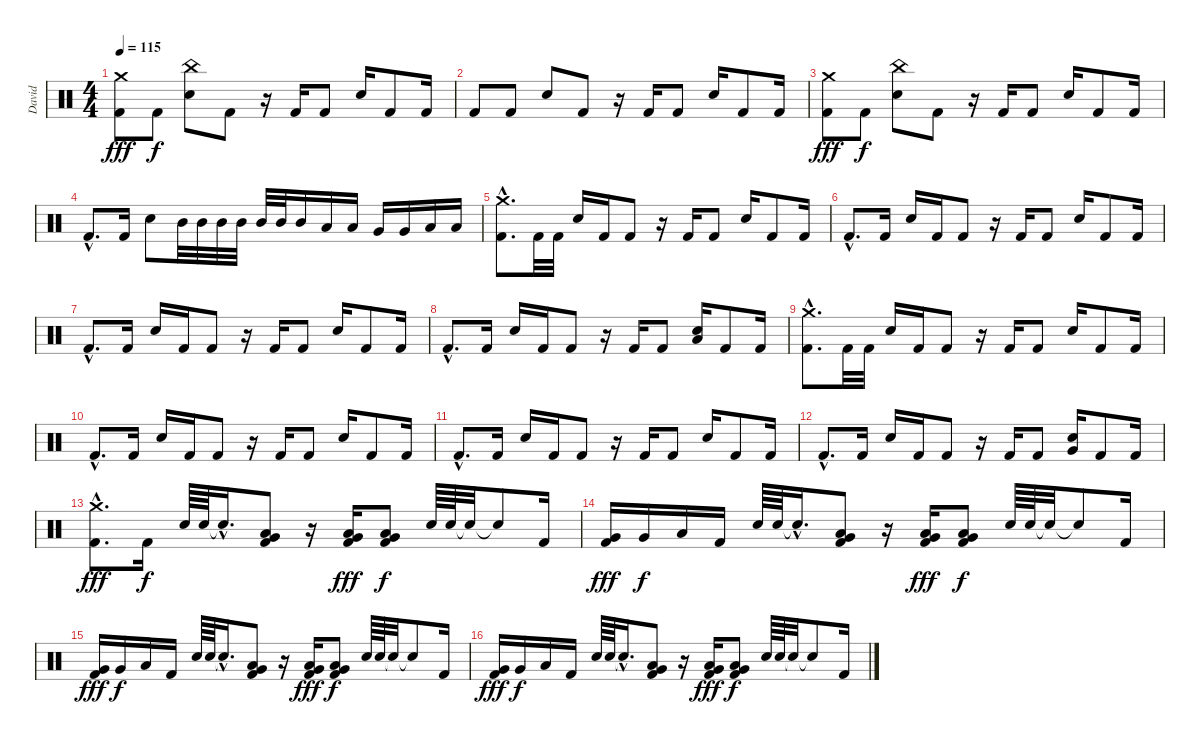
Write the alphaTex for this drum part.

\track ("David" "David") {instrument percussion}
\staff {score}
\articulation defaults
\ts (4 4)
\tempo 115
\clef neutral
\ks c
("Crash medium (hit)" "Kick (hit) 2").8{dy fff} "Kick (hit) 2".8{dy f} ("China (hit)" "Snare (hit) 2").8 "Kick (hit) 2".8 r.16 "Kick (hit) 2".16 "Kick (hit) 2".8 "Snare (hit) 2".16 "Kick (hit) 2".8 "Kick (hit) 2".16 |
"Kick (hit) 2".8 "Kick (hit) 2".8 "Snare (hit) 2".8 "Kick (hit) 2".8 r.16 "Kick (hit) 2".16 "Kick (hit) 2".8 "Snare (hit) 2".16 "Kick (hit) 2".8 "Kick (hit) 2".16 |
("Crash medium (hit)" "Kick (hit) 2").8{dy fff} "Kick (hit) 2".8{dy f} ("China (hit)" "Snare (hit) 2").8 "Kick (hit) 2".8 r.16 "Kick (hit) 2".16 "Kick (hit) 2".8 "Snare (hit) 2".16 "Kick (hit) 2".8 "Kick (hit) 2".16 |
"Kick (hit) 2"{hac}.8{d} "Kick (hit) 2".16 "Snare (hit) 2".8 "Mid Tom (hit)".32 "Mid Tom (hit)".32 "Mid Tom (hit)".32 "Mid Tom (hit)".32 "Mid Tom (hit)".32 "Mid Tom (hit)".32 "Mid Tom (hit)".16 "Low Tom (hit)".16 "Low Tom (hit)".16 "Very Low Tom (hit)".16 "Very Low Tom (hit)".16 "Low Floor Tom (hit)".16 "Low Floor Tom (hit)".16 |
("Crash medium (hit)"{hac} "Kick (hit) 2"{hac}).8{d} "Kick (hit) 2".32 "Kick (hit) 2".32 "Snare (hit) 2".16 "Kick (hit) 2".16 "Kick (hit) 2".8 r.16 "Kick (hit) 2".16 "Kick (hit) 2".8 "Snare (hit) 2".16 "Kick (hit) 2".8 "Kick (hit) 2".16 |
"Kick (hit) 2"{hac}.8{d} "Kick (hit) 2".16 "Snare (hit) 2".16 "Kick (hit) 2".16 "Kick (hit) 2".8 r.16 "Kick (hit) 2".16 "Kick (hit) 2".8 "Snare (hit) 2".16 "Kick (hit) 2".8 "Kick (hit) 2".16 |
"Kick (hit) 2"{hac}.8{d} "Kick (hit) 2".16 "Snare (hit) 2".16 "Kick (hit) 2".16 "Kick (hit) 2".8 r.16 "Kick (hit) 2".16 "Kick (hit) 2".8 "Snare (hit) 2".16 "Kick (hit) 2".8 "Kick (hit) 2".16 |
"Kick (hit) 2"{hac}.8{d} "Kick (hit) 2".16 "Snare (hit) 2".16 "Kick (hit) 2".16 "Kick (hit) 2".8 r.16 "Kick (hit) 2".16 "Kick (hit) 2".8 ("Snare (hit) 2" "Low Floor Tom (hit)").16 "Kick (hit) 2".8 "Kick (hit) 2".16 |
("Crash medium (hit)"{hac} "Kick (hit) 2"{hac}).8{d} "Kick (hit) 2".32 "Kick (hit) 2".32 "Snare (hit) 2".16 "Kick (hit) 2".16 "Kick (hit) 2".8 r.16 "Kick (hit) 2".16 "Kick (hit) 2".8 "Snare (hit) 2".16 "Kick (hit) 2".8 "Kick (hit) 2".16 |
"Kick (hit) 2"{hac}.8{d} "Kick (hit) 2".16 "Snare (hit) 2".16 "Kick (hit) 2".16 "Kick (hit) 2".8 r.16 "Kick (hit) 2".16 "Kick (hit) 2".8 "Snare (hit) 2".16 "Kick (hit) 2".8 "Kick (hit) 2".16 |
"Kick (hit) 2"{hac}.8{d} "Kick (hit) 2".16 "Snare (hit) 2".16 "Kick (hit) 2".16 "Kick (hit) 2".8 r.16 "Kick (hit) 2".16 "Kick (hit) 2".8 "Snare (hit) 2".16 "Kick (hit) 2".8 "Kick (hit) 2".16 |
"Kick (hit) 2"{hac}.8{d} "Kick (hit) 2".16 "Snare (hit) 2".16 "Kick (hit) 2".16 "Kick (hit) 2".8 r.16 "Kick (hit) 2".16 "Kick (hit) 2".8 ("Snare (hit) 2" "Very Low Tom (hit)").16 "Kick (hit) 2".8 "Kick (hit) 2".16 |
("Crash medium (hit)"{hac} "Kick (hit) 2"{hac}).8{d dy fff} "Kick (hit) 2".16{dy f} "Snare (hit) 2".64 "Snare (hit) 2".64 "Snare (hit)"{hac t}.16{d} ("Low Tom (hit)" "Very Low Tom (hit)" "Kick (hit) 2").8 r.16 ("Very Low Tom (hit)" "Low Floor Tom (hit)" "Kick (hit) 2").16{dy fff} ("Very Low Tom (hit)" "Low Floor Tom (hit)" "Kick (hit) 2").8{dy f} "Snare (hit) 2".64 "Snare (hit) 2".64 "Snare (hit)"{t}.32 "Snare (hit)"{t}.8 "Kick (hit) 2".16 |
("Very Low Tom (hit)" "Kick (hit) 2").16{dy fff} "Very Low Tom (hit)".16{dy f} "Low Floor Tom (hit)".16 "Kick (hit) 2".16 "Snare (hit) 2".64 "Snare (hit) 2".64 "Snare (hit)"{hac t}.16{d} ("Low Tom (hit)" "Very Low Tom (hit)" "Kick (hit) 2").8 r.16 ("Very Low Tom (hit)" "Low Floor Tom (hit)" "Kick (hit) 2").16{dy fff} ("Very Low Tom (hit)" "Low Floor Tom (hit)" "Kick (hit) 2").8{dy f} "Snare (hit) 2".64 "Snare (hit) 2".64 "Snare (hit)"{t}.32 "Snare (hit)"{t}.8 "Kick (hit) 2".16 |
("Very Low Tom (hit)" "Kick (hit) 2").16{dy fff} "Very Low Tom (hit)".16{dy f} "Low Floor Tom (hit)".16 "Kick (hit) 2".16 "Snare (hit) 2".64 "Snare (hit) 2".64 "Snare (hit)"{hac t}.16{d} ("Low Tom (hit)" "Very Low Tom (hit)" "Kick (hit) 2").8 r.16 ("Very Low Tom (hit)" "Low Floor Tom (hit)" "Kick (hit) 2").16{dy fff} ("Very Low Tom (hit)" "Low Floor Tom (hit)" "Kick (hit) 2").8{dy f} "Snare (hit) 2".64 "Snare (hit) 2".64 "Snare (hit)"{t}.32 "Snare (hit)"{t}.8 "Kick (hit) 2".16 |
("Very Low Tom (hit)" "Kick (hit) 2").16{dy fff} "Very Low Tom (hit)".16{dy f} "Low Floor Tom (hit)".16 "Kick (hit) 2".16 "Snare (hit) 2".64 "Snare (hit) 2".64 "Snare (hit)"{hac t}.16{d} ("Low Tom (hit)" "Very Low Tom (hit)" "Kick (hit) 2").8 r.16 ("Very Low Tom (hit)" "Low Floor Tom (hit)" "Kick (hit) 2").16{dy fff} ("Very Low Tom (hit)" "Low Floor Tom (hit)" "Kick (hit) 2").8{dy f} "Snare (hit) 2".64 "Snare (hit) 2".64 "Snare (hit)"{t}.32 "Snare (hit)"{t}.8 "Kick (hit) 2".16
